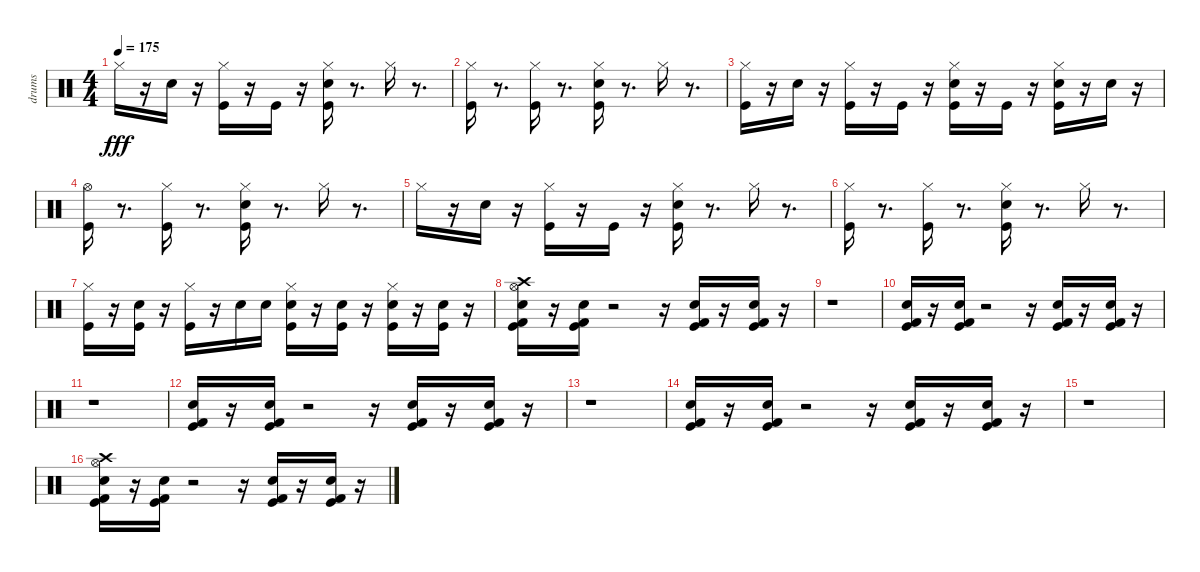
\track ("drums" "drums") {instrument percussion}
\staff {score}
\articulation defaults
\ts (4 4)
\tempo 175
\clef neutral
\ks c "Hi-Hat (closed)".16{dy fff}
r.16 "Snare (hit) 2".16 r.16 ("Hi-Hat (closed)" "Kick (hit)").16 r.16 "Kick (hit)".16 r.16 ("Hi-Hat (closed)" "Snare (hit) 2" "Kick (hit)").16 r.8{d} "Hi-Hat (closed)".16 r.8{d} |
("Kick (hit)" "Hi-Hat (closed)").16 r.8{d} ("Kick (hit)" "Hi-Hat (closed)").16 r.8{d} ("Snare (hit) 2" "Kick (hit)" "Hi-Hat (closed)").16 r.8{d} "Hi-Hat (closed)".16 r.8{d} |
("Hi-Hat (closed)" "Kick (hit)").16 r.16 "Snare (hit) 2".16 r.16 ("Hi-Hat (closed)" "Kick (hit)").16 r.16 "Kick (hit)".16 r.16 ("Hi-Hat (closed)" "Snare (hit) 2" "Kick (hit)").16 r.16 "Kick (hit)".16 r.16 ("Hi-Hat (closed)" "Kick (hit)" "Snare (hit) 2").16 r.16 "Snare (hit) 2".16 r.16 |
("Kick (hit)" "Hi-Hat (open)").16 r.8{d} ("Kick (hit)" "Hi-Hat (closed)").16 r.8{d} ("Snare (hit) 2" "Kick (hit)" "Hi-Hat (closed)").16 r.8{d} "Hi-Hat (closed)".16 r.8{d} |
"Hi-Hat (closed)".16 r.16 "Snare (hit) 2".16 r.16 ("Hi-Hat (closed)" "Kick (hit)").16 r.16 "Kick (hit)".16 r.16 ("Hi-Hat (closed)" "Snare (hit) 2" "Kick (hit)").16 r.8{d} "Hi-Hat (closed)".16 r.8{d} |
("Kick (hit)" "Hi-Hat (closed)").16 r.8{d} ("Kick (hit)" "Hi-Hat (closed)").16 r.8{d} ("Snare (hit) 2" "Kick (hit)" "Hi-Hat (closed)").16 r.8{d} "Hi-Hat (closed)".16 r.8{d} |
("Hi-Hat (closed)" "Kick (hit)").16 r.16 ("Snare (hit) 2" "Kick (hit)").16 r.16 ("Hi-Hat (closed)" "Kick (hit)").16 r.16 "Snare (hit) 2".16 "Snare (hit) 2".16 ("Hi-Hat (closed)" "Snare (hit) 2" "Kick (hit)").16 r.16 ("Kick (hit)" "Snare (hit) 2").16 r.16 ("Hi-Hat (closed)" "Kick (hit)" "Snare (hit) 2").16 r.16 ("Snare (hit) 2" "Kick (hit)").16 r.16 |
("Snare (hit) 2" "Kick (hit)" "Kick (hit) 2" "Hi-Hat (open)" "Crash high (hit)").16 r.16 ("Snare (hit) 2" "Kick (hit)" "Kick (hit) 2").16 r.2 r.16 ("Snare (hit) 2" "Kick (hit)" "Kick (hit) 2").16 r.16 ("Snare (hit) 2" "Kick (hit)" "Kick (hit) 2").16 r.16 |
r.1 |
("Kick (hit) 2" "Kick (hit)" "Snare (hit) 2").16 r.16 ("Snare (hit) 2" "Kick (hit)" "Kick (hit) 2").16 r.2 r.16 ("Kick (hit) 2" "Kick (hit)" "Snare (hit) 2").16 r.16 ("Snare (hit) 2" "Kick (hit)" "Kick (hit) 2").16 r.16 |
r.1 |
("Kick (hit) 2" "Kick (hit)" "Snare (hit) 2").16 r.16 ("Snare (hit) 2" "Kick (hit)" "Kick (hit) 2").16 r.2 r.16 ("Kick (hit) 2" "Kick (hit)" "Snare (hit) 2").16 r.16 ("Snare (hit) 2" "Kick (hit)" "Kick (hit) 2").16 r.16 |
r.1 |
("Kick (hit) 2" "Kick (hit)" "Snare (hit) 2").16 r.16 ("Snare (hit) 2" "Kick (hit)" "Kick (hit) 2").16 r.2 r.16 ("Kick (hit) 2" "Kick (hit)" "Snare (hit) 2").16 r.16 ("Snare (hit) 2" "Kick (hit)" "Kick (hit) 2").16 r.16 |
r.1 |
("Snare (hit) 2" "Kick (hit)" "Kick (hit) 2" "Hi-Hat (open)" "Crash high (hit)").16 r.16 ("Snare (hit) 2" "Kick (hit)" "Kick (hit) 2").16 r.2 r.16 ("Snare (hit) 2" "Kick (hit)" "Kick (hit) 2").16 r.16 ("Snare (hit) 2" "Kick (hit)" "Kick (hit) 2").16 r.16
